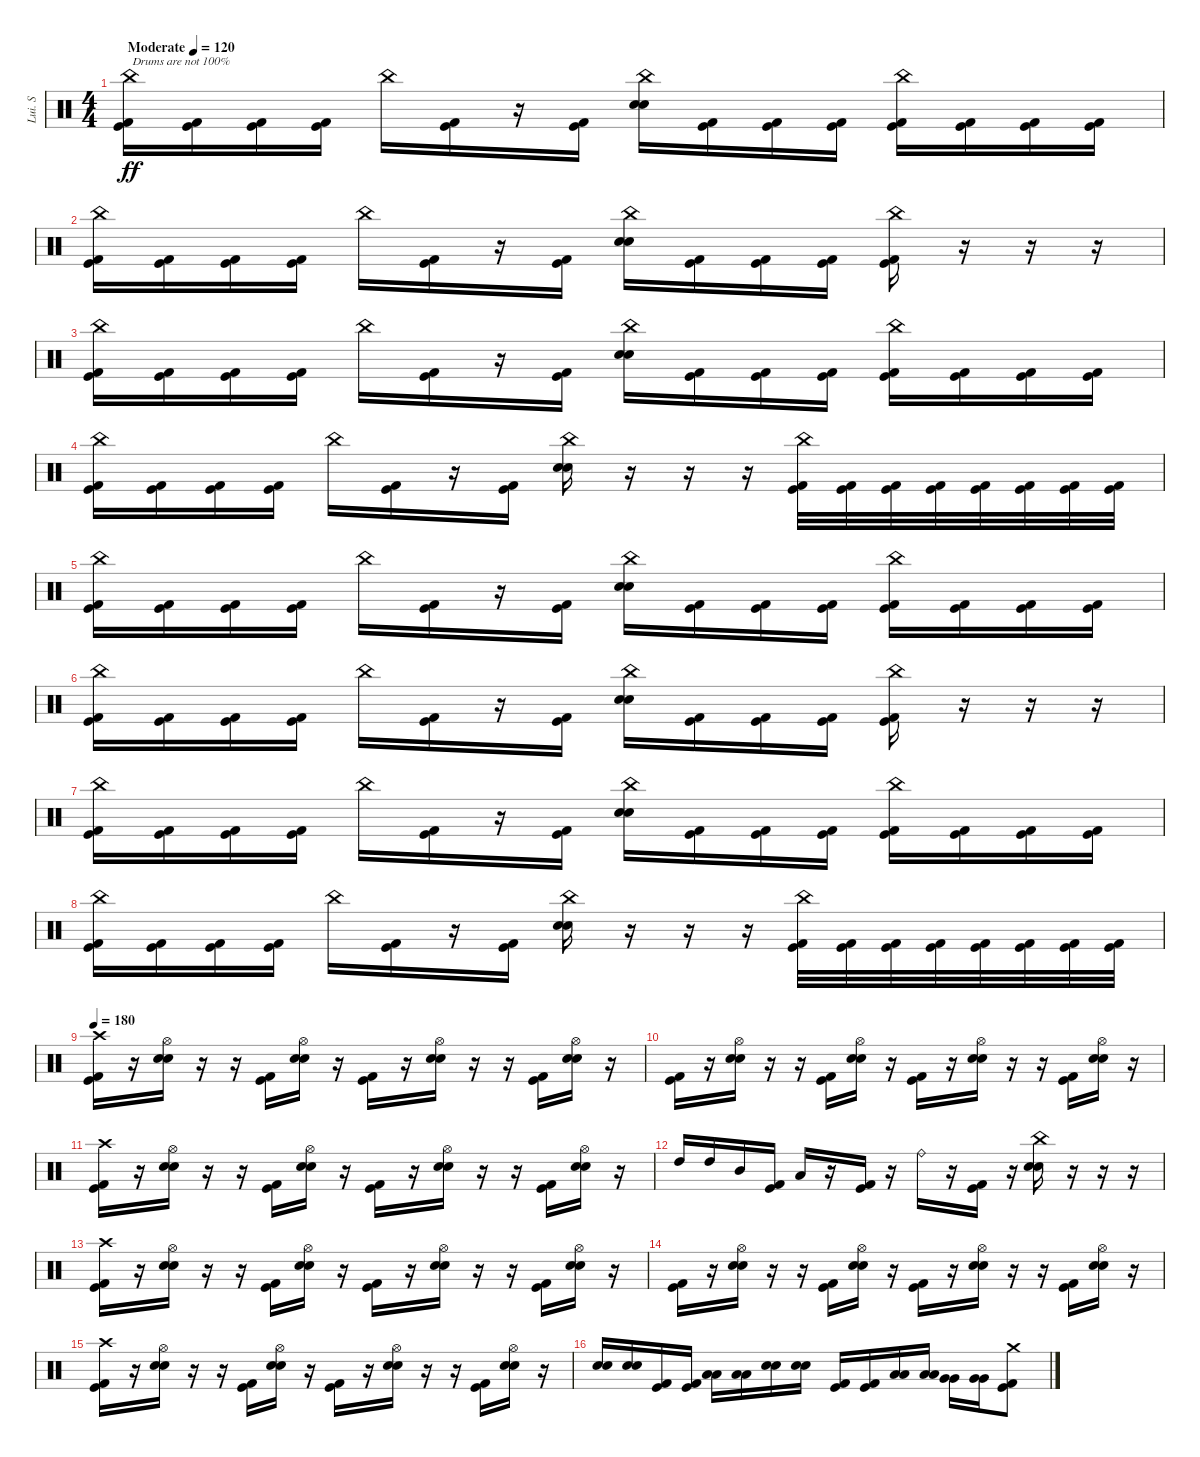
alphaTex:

\track ("Lui. S" "Lui. S") {instrument percussion}
\staff {score}
\articulation defaults
\ts (4 4)
\tempo (120 "Moderate")
\clef neutral
\ks c
("China (hit)" "Kick (hit)" "Kick (hit) 2").16{txt "Drums are not 100%" dy ff} ("Kick (hit) 2" "Kick (hit)").16 ("Kick (hit) 2" "Kick (hit)").16 ("Kick (hit) 2" "Kick (hit)").16 "China (hit)".16 ("Kick (hit) 2" "Kick (hit)").16 r.16 ("Kick (hit)" "Kick (hit) 2").16 ("China (hit)" "Electric Snare (hit)" "Snare (hit) 2").16 ("Kick (hit)" "Kick (hit) 2").16 ("Kick (hit)" "Kick (hit) 2").16 ("Kick (hit)" "Kick (hit) 2").16 ("China (hit)" "Kick (hit)" "Kick (hit) 2").16 ("Kick (hit)" "Kick (hit) 2").16 ("Kick (hit)" "Kick (hit) 2").16 ("Kick (hit)" "Kick (hit) 2").16 |
("China (hit)" "Kick (hit)" "Kick (hit) 2").16 ("Kick (hit)" "Kick (hit) 2").16 ("Kick (hit)" "Kick (hit) 2").16 ("Kick (hit)" "Kick (hit) 2").16 "China (hit)".16 ("Kick (hit)" "Kick (hit) 2").16 r.16 ("Kick (hit)" "Kick (hit) 2").16 ("China (hit)" "Electric Snare (hit)" "Snare (hit) 2").16 ("Kick (hit)" "Kick (hit) 2").16 ("Kick (hit)" "Kick (hit) 2").16 ("Kick (hit)" "Kick (hit) 2").16 ("China (hit)" "Kick (hit)" "Kick (hit) 2").16 r.16 r.16 r.16 |
("China (hit)" "Kick (hit)" "Kick (hit) 2").16 ("Kick (hit) 2" "Kick (hit)").16 ("Kick (hit) 2" "Kick (hit)").16 ("Kick (hit) 2" "Kick (hit)").16 "China (hit)".16 ("Kick (hit) 2" "Kick (hit)").16 r.16 ("Kick (hit)" "Kick (hit) 2").16 ("China (hit)" "Electric Snare (hit)" "Snare (hit) 2").16 ("Kick (hit)" "Kick (hit) 2").16 ("Kick (hit)" "Kick (hit) 2").16 ("Kick (hit)" "Kick (hit) 2").16 ("China (hit)" "Kick (hit)" "Kick (hit) 2").16 ("Kick (hit)" "Kick (hit) 2").16 ("Kick (hit)" "Kick (hit) 2").16 ("Kick (hit)" "Kick (hit) 2").16 |
("China (hit)" "Kick (hit)" "Kick (hit) 2").16 ("Kick (hit)" "Kick (hit) 2").16 ("Kick (hit)" "Kick (hit) 2").16 ("Kick (hit)" "Kick (hit) 2").16 "China (hit)".16 ("Kick (hit)" "Kick (hit) 2").16 r.16 ("Kick (hit)" "Kick (hit) 2").16 ("China (hit)" "Electric Snare (hit)" "Snare (hit) 2").16 r.16 r.16 r.16 ("China (hit)" "Kick (hit)" "Kick (hit) 2").32 ("Kick (hit)" "Kick (hit) 2").32 ("Kick (hit)" "Kick (hit) 2").32 ("Kick (hit)" "Kick (hit) 2").32 ("Kick (hit)" "Kick (hit) 2").32 ("Kick (hit)" "Kick (hit) 2").32 ("Kick (hit)" "Kick (hit) 2").32 ("Kick (hit)" "Kick (hit) 2").32 |
("China (hit)" "Kick (hit)" "Kick (hit) 2").16 ("Kick (hit) 2" "Kick (hit)").16 ("Kick (hit) 2" "Kick (hit)").16 ("Kick (hit) 2" "Kick (hit)").16 "China (hit)".16 ("Kick (hit) 2" "Kick (hit)").16 r.16 ("Kick (hit)" "Kick (hit) 2").16 ("China (hit)" "Electric Snare (hit)" "Snare (hit) 2").16 ("Kick (hit)" "Kick (hit) 2").16 ("Kick (hit)" "Kick (hit) 2").16 ("Kick (hit)" "Kick (hit) 2").16 ("China (hit)" "Kick (hit)" "Kick (hit) 2").16 ("Kick (hit)" "Kick (hit) 2").16 ("Kick (hit)" "Kick (hit) 2").16 ("Kick (hit)" "Kick (hit) 2").16 |
("China (hit)" "Kick (hit)" "Kick (hit) 2").16 ("Kick (hit)" "Kick (hit) 2").16 ("Kick (hit)" "Kick (hit) 2").16 ("Kick (hit)" "Kick (hit) 2").16 "China (hit)".16 ("Kick (hit)" "Kick (hit) 2").16 r.16 ("Kick (hit)" "Kick (hit) 2").16 ("China (hit)" "Electric Snare (hit)" "Snare (hit) 2").16 ("Kick (hit)" "Kick (hit) 2").16 ("Kick (hit)" "Kick (hit) 2").16 ("Kick (hit)" "Kick (hit) 2").16 ("China (hit)" "Kick (hit)" "Kick (hit) 2").16 r.16 r.16 r.16 |
("China (hit)" "Kick (hit)" "Kick (hit) 2").16 ("Kick (hit) 2" "Kick (hit)").16 ("Kick (hit) 2" "Kick (hit)").16 ("Kick (hit) 2" "Kick (hit)").16 "China (hit)".16 ("Kick (hit) 2" "Kick (hit)").16 r.16 ("Kick (hit)" "Kick (hit) 2").16 ("China (hit)" "Electric Snare (hit)" "Snare (hit) 2").16 ("Kick (hit)" "Kick (hit) 2").16 ("Kick (hit)" "Kick (hit) 2").16 ("Kick (hit)" "Kick (hit) 2").16 ("China (hit)" "Kick (hit)" "Kick (hit) 2").16 ("Kick (hit)" "Kick (hit) 2").16 ("Kick (hit)" "Kick (hit) 2").16 ("Kick (hit)" "Kick (hit) 2").16 |
("China (hit)" "Kick (hit)" "Kick (hit) 2").16 ("Kick (hit)" "Kick (hit) 2").16 ("Kick (hit)" "Kick (hit) 2").16 ("Kick (hit)" "Kick (hit) 2").16 "China (hit)".16 ("Kick (hit)" "Kick (hit) 2").16 r.16 ("Kick (hit)" "Kick (hit) 2").16 ("China (hit)" "Electric Snare (hit)" "Snare (hit) 2").16 r.16 r.16 r.16 ("China (hit)" "Kick (hit)" "Kick (hit) 2").32 ("Kick (hit)" "Kick (hit) 2").32 ("Kick (hit)" "Kick (hit) 2").32 ("Kick (hit)" "Kick (hit) 2").32 ("Kick (hit)" "Kick (hit) 2").32 ("Kick (hit)" "Kick (hit) 2").32 ("Kick (hit)" "Kick (hit) 2").32 ("Kick (hit)" "Kick (hit) 2").32 |
\tempo 180
("Crash high (hit)" "Kick (hit)" "Kick (hit) 2").16 r.16 ("Hi-Hat (open)" "Electric Snare (hit)" "Snare (hit) 2").16 r.16 r.16 ("Kick (hit)" "Kick (hit) 2").16 ("Hi-Hat (open)" "Electric Snare (hit)" "Snare (hit) 2").16 r.16 ("Kick (hit)" "Kick (hit) 2").16 r.16 ("Hi-Hat (open)" "Electric Snare (hit)" "Snare (hit) 2").16 r.16 r.16 ("Kick (hit)" "Kick (hit) 2").16 ("Hi-Hat (open)" "Electric Snare (hit)" "Snare (hit) 2").16 r.16 |
("Kick (hit)" "Kick (hit) 2").16 r.16 ("Hi-Hat (open)" "Electric Snare (hit)" "Snare (hit) 2").16 r.16 r.16 ("Kick (hit)" "Kick (hit) 2").16 ("Hi-Hat (open)" "Electric Snare (hit)" "Snare (hit) 2").16 r.16 ("Kick (hit)" "Kick (hit) 2").16 r.16 ("Hi-Hat (open)" "Electric Snare (hit)" "Snare (hit) 2").16 r.16 r.16 ("Kick (hit)" "Kick (hit) 2").16 ("Hi-Hat (open)" "Electric Snare (hit)" "Snare (hit) 2").16 r.16 |
("Crash high (hit)" "Kick (hit)" "Kick (hit) 2").16 r.16 ("Hi-Hat (open)" "Electric Snare (hit)" "Snare (hit) 2").16 r.16 r.16 ("Kick (hit)" "Kick (hit) 2").16 ("Hi-Hat (open)" "Electric Snare (hit)" "Snare (hit) 2").16 r.16 ("Kick (hit)" "Kick (hit) 2").16 r.16 ("Hi-Hat (open)" "Electric Snare (hit)" "Snare (hit) 2").16 r.16 r.16 ("Kick (hit)" "Kick (hit) 2").16 ("Hi-Hat (open)" "Electric Snare (hit)" "Snare (hit) 2").16 r.16 |
"High Tom (hit)".16 "High Tom (hit)".16 "Mid Tom (hit)".16 ("Kick (hit)" "Kick (hit) 2").16 "Low Tom (hit)".16 r.16 ("Kick (hit)" "Kick (hit) 2").16 r.16 "Ride (bell)".16 r.16 ("Kick (hit)" "Kick (hit) 2").16 r.16 ("China (hit)" "Electric Snare (hit)" "Snare (hit) 2").16 r.16 r.16 r.16 |
("Crash high (hit)" "Kick (hit)" "Kick (hit) 2").16 r.16 ("Hi-Hat (open)" "Electric Snare (hit)" "Snare (hit) 2").16 r.16 r.16 ("Kick (hit)" "Kick (hit) 2").16 ("Hi-Hat (open)" "Electric Snare (hit)" "Snare (hit) 2").16 r.16 ("Kick (hit)" "Kick (hit) 2").16 r.16 ("Hi-Hat (open)" "Electric Snare (hit)" "Snare (hit) 2").16 r.16 r.16 ("Kick (hit)" "Kick (hit) 2").16 ("Hi-Hat (open)" "Electric Snare (hit)" "Snare (hit) 2").16 r.16 |
("Kick (hit)" "Kick (hit) 2").16 r.16 ("Hi-Hat (open)" "Electric Snare (hit)" "Snare (hit) 2").16 r.16 r.16 ("Kick (hit)" "Kick (hit) 2").16 ("Hi-Hat (open)" "Electric Snare (hit)" "Snare (hit) 2").16 r.16 ("Kick (hit)" "Kick (hit) 2").16 r.16 ("Hi-Hat (open)" "Electric Snare (hit)" "Snare (hit) 2").16 r.16 r.16 ("Kick (hit)" "Kick (hit) 2").16 ("Hi-Hat (open)" "Electric Snare (hit)" "Snare (hit) 2").16 r.16 |
("Crash high (hit)" "Kick (hit)" "Kick (hit) 2").16 r.16 ("Hi-Hat (open)" "Electric Snare (hit)" "Snare (hit) 2").16 r.16 r.16 ("Kick (hit)" "Kick (hit) 2").16 ("Hi-Hat (open)" "Electric Snare (hit)" "Snare (hit) 2").16 r.16 ("Kick (hit)" "Kick (hit) 2").16 r.16 ("Hi-Hat (open)" "Electric Snare (hit)" "Snare (hit) 2").16 r.16 r.16 ("Kick (hit)" "Kick (hit) 2").16 ("Hi-Hat (open)" "Electric Snare (hit)" "Snare (hit) 2").16 r.16 |
("Snare (hit) 2" "Electric Snare (hit)").16 ("Snare (hit) 2" "Electric Snare (hit)").16 ("Kick (hit)" "Kick (hit) 2").16 ("Kick (hit)" "Kick (hit) 2").16 ("Low Tom (hit)" "Low Tom (hit)").16 ("Low Tom (hit)" "Low Tom (hit)").16 ("Snare (hit) 2" "Electric Snare (hit)").16 ("Snare (hit) 2" "Electric Snare (hit)").16 ("Kick (hit)" "Kick (hit) 2").16 ("Kick (hit)" "Kick (hit) 2").16 ("Low Tom (hit)" "Low Tom (hit)").16 ("Low Tom (hit)" "Low Tom (hit)").16 ("Very Low Tom (hit)" "Very Low Tom (hit)").16 ("Very Low Tom (hit)" "Very Low Tom (hit)").16 ("Crash medium (hit)" "Kick (hit)" "Kick (hit) 2").8
